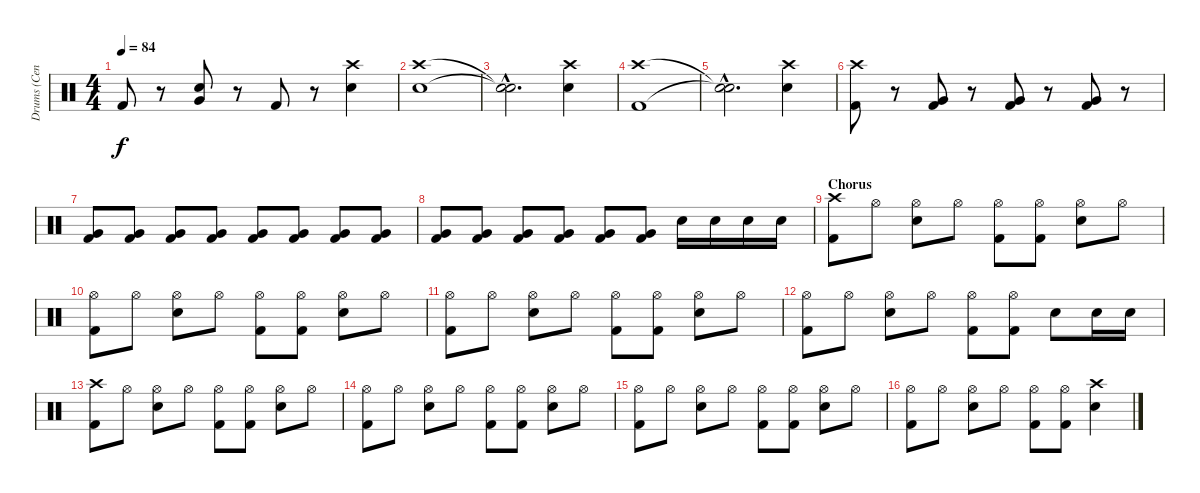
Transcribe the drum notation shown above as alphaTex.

\track ("Drums (Cenk)" "Drums (Cen") {instrument percussion}
\staff {score}
\articulation defaults
\ts (4 4)
\tempo 84
\clef neutral
\ks c "Kick (hit) 2".8{dy f}
r.8 ("Very Low Tom (hit)" "Snare (hit) 2").8 r.8 "Kick (hit) 2".8 r.8 ("Crash high (hit)" "Snare (hit) 2").4 |
("Crash high (hit)" "Snare (hit) 2").1 |
("Snare (hit)"{hac t} "Snare (hit)"{hac t}).2{d} ("Crash high (hit)" "Snare (hit) 2").4 |
("Crash high (hit)" "Kick (hit) 2").1 |
("Snare (hit)"{hac t} "Snare (hit)"{hac t}).2{d} ("Crash high (hit)" "Snare (hit) 2").4 |
("Crash high (hit)" "Kick (hit) 2").8 r.8 ("Very Low Tom (hit)" "Kick (hit) 2").8 r.8 ("Very Low Tom (hit)" "Kick (hit) 2").8 r.8 ("Very Low Tom (hit)" "Kick (hit) 2").8 r.8 |
("Very Low Tom (hit)" "Kick (hit) 2").8 ("Very Low Tom (hit)" "Kick (hit) 2").8 ("Very Low Tom (hit)" "Kick (hit) 2").8 ("Very Low Tom (hit)" "Kick (hit) 2").8 ("Very Low Tom (hit)" "Kick (hit) 2").8 ("Very Low Tom (hit)" "Kick (hit) 2").8 ("Very Low Tom (hit)" "Kick (hit) 2").8 ("Very Low Tom (hit)" "Kick (hit) 2").8 |
("Very Low Tom (hit)" "Kick (hit) 2").8 ("Very Low Tom (hit)" "Kick (hit) 2").8 ("Very Low Tom (hit)" "Kick (hit) 2").8 ("Very Low Tom (hit)" "Kick (hit) 2").8 ("Very Low Tom (hit)" "Kick (hit) 2").8 ("Very Low Tom (hit)" "Kick (hit) 2").8 "Snare (hit) 2".16 "Snare (hit) 2".16 "Snare (hit) 2".16 "Snare (hit) 2".16 |
\section ("" "Chorus")
("Crash high (hit)" "Kick (hit) 2").8 "Hi-Hat (open)".8 ("Hi-Hat (open)" "Snare (hit) 2").8 "Hi-Hat (open)".8 ("Hi-Hat (open)" "Kick (hit) 2").8 ("Hi-Hat (open)" "Kick (hit) 2").8 ("Hi-Hat (open)" "Snare (hit) 2").8 "Hi-Hat (open)".8 |
("Hi-Hat (open)" "Kick (hit) 2").8 "Hi-Hat (open)".8 ("Hi-Hat (open)" "Snare (hit) 2").8 "Hi-Hat (open)".8 ("Hi-Hat (open)" "Kick (hit) 2").8 ("Hi-Hat (open)" "Kick (hit) 2").8 ("Hi-Hat (open)" "Snare (hit) 2").8 "Hi-Hat (open)".8 |
("Hi-Hat (open)" "Kick (hit) 2").8 "Hi-Hat (open)".8 ("Hi-Hat (open)" "Snare (hit) 2").8 "Hi-Hat (open)".8 ("Hi-Hat (open)" "Kick (hit) 2").8 ("Hi-Hat (open)" "Kick (hit) 2").8 ("Hi-Hat (open)" "Snare (hit) 2").8 "Hi-Hat (open)".8 |
("Hi-Hat (open)" "Kick (hit) 2").8 "Hi-Hat (open)".8 ("Hi-Hat (open)" "Snare (hit) 2").8 "Hi-Hat (open)".8 ("Hi-Hat (open)" "Kick (hit) 2").8 ("Hi-Hat (open)" "Kick (hit) 2").8 "Snare (hit) 2".8 "Snare (hit) 2".16 "Snare (hit) 2".16 |
("Crash high (hit)" "Kick (hit) 2").8 "Hi-Hat (open)".8 ("Hi-Hat (open)" "Snare (hit) 2").8 "Hi-Hat (open)".8 ("Hi-Hat (open)" "Kick (hit) 2").8 ("Hi-Hat (open)" "Kick (hit) 2").8 ("Hi-Hat (open)" "Snare (hit) 2").8 "Hi-Hat (open)".8 |
("Hi-Hat (open)" "Kick (hit) 2").8 "Hi-Hat (open)".8 ("Hi-Hat (open)" "Snare (hit) 2").8 "Hi-Hat (open)".8 ("Hi-Hat (open)" "Kick (hit) 2").8 ("Hi-Hat (open)" "Kick (hit) 2").8 ("Hi-Hat (open)" "Snare (hit) 2").8 "Hi-Hat (open)".8 |
("Hi-Hat (open)" "Kick (hit) 2").8 "Hi-Hat (open)".8 ("Hi-Hat (open)" "Snare (hit) 2").8 "Hi-Hat (open)".8 ("Hi-Hat (open)" "Kick (hit) 2").8 ("Hi-Hat (open)" "Kick (hit) 2").8 ("Hi-Hat (open)" "Snare (hit) 2").8 "Hi-Hat (open)".8 |
("Hi-Hat (open)" "Kick (hit) 2").8 "Hi-Hat (open)".8 ("Hi-Hat (open)" "Snare (hit) 2").8 "Hi-Hat (open)".8 ("Hi-Hat (open)" "Kick (hit) 2").8 ("Hi-Hat (open)" "Kick (hit) 2").8 ("Crash high (hit)" "Snare (hit) 2").4
